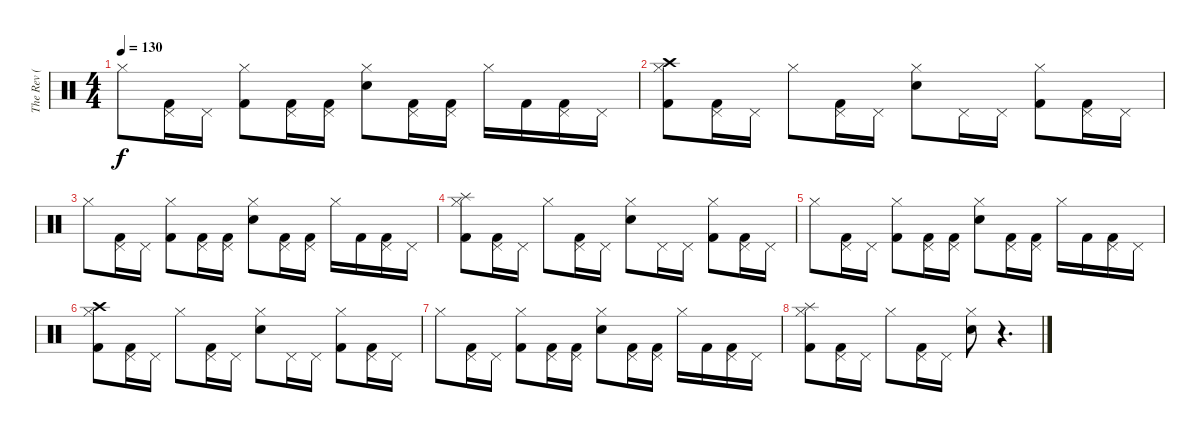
\track ("The Rev ( Drums )" "The Rev ( ") {instrument percussion}
\staff {score}
\articulation defaults
\ts (4 4)
\tempo 130
\clef neutral
\ks c "Hi-Hat (closed)".8{dy f}
("Pedal Hi-Hat (hit)" "Kick (hit) 2").16 "Pedal Hi-Hat (hit)".16 ("Hi-Hat (closed)" "Kick (hit) 2").8 ("Pedal Hi-Hat (hit)" "Kick (hit) 2").16 ("Pedal Hi-Hat (hit)" "Kick (hit) 2").16 ("Hi-Hat (closed)" "Snare (hit) 2").8 ("Pedal Hi-Hat (hit)" "Kick (hit) 2").16 ("Pedal Hi-Hat (hit)" "Kick (hit) 2").16 "Hi-Hat (closed)".16 "Kick (hit) 2".16 ("Pedal Hi-Hat (hit)" "Kick (hit) 2").16 "Pedal Hi-Hat (hit)".16 |
("Crash high (hit)" "Hi-Hat (closed)" "Kick (hit) 2").8 ("Pedal Hi-Hat (hit)" "Kick (hit) 2").16 "Pedal Hi-Hat (hit)".16 "Hi-Hat (closed)".8 ("Pedal Hi-Hat (hit)" "Kick (hit) 2").16 "Pedal Hi-Hat (hit)".16 ("Hi-Hat (closed)" "Snare (hit) 2").8 "Pedal Hi-Hat (hit)".16 "Pedal Hi-Hat (hit)".16 ("Hi-Hat (closed)" "Kick (hit) 2").8 ("Pedal Hi-Hat (hit)" "Kick (hit) 2").16 "Pedal Hi-Hat (hit)".16 |
"Hi-Hat (closed)".8 ("Pedal Hi-Hat (hit)" "Kick (hit) 2").16 "Pedal Hi-Hat (hit)".16 ("Hi-Hat (closed)" "Kick (hit) 2").8 ("Pedal Hi-Hat (hit)" "Kick (hit) 2").16 ("Pedal Hi-Hat (hit)" "Kick (hit) 2").16 ("Hi-Hat (closed)" "Snare (hit) 2").8 ("Pedal Hi-Hat (hit)" "Kick (hit) 2").16 ("Pedal Hi-Hat (hit)" "Kick (hit) 2").16 "Hi-Hat (closed)".16 "Kick (hit) 2".16 ("Pedal Hi-Hat (hit)" "Kick (hit) 2").16 "Pedal Hi-Hat (hit)".16 |
("Splash (hit)" "Hi-Hat (closed)" "Kick (hit) 2").8 ("Pedal Hi-Hat (hit)" "Kick (hit) 2").16 "Pedal Hi-Hat (hit)".16 "Hi-Hat (closed)".8 ("Pedal Hi-Hat (hit)" "Kick (hit) 2").16 "Pedal Hi-Hat (hit)".16 ("Hi-Hat (closed)" "Snare (hit) 2").8 "Pedal Hi-Hat (hit)".16 "Pedal Hi-Hat (hit)".16 ("Hi-Hat (closed)" "Kick (hit) 2").8 ("Pedal Hi-Hat (hit)" "Kick (hit) 2").16 "Pedal Hi-Hat (hit)".16 |
"Hi-Hat (closed)".8 ("Pedal Hi-Hat (hit)" "Kick (hit) 2").16 "Pedal Hi-Hat (hit)".16 ("Hi-Hat (closed)" "Kick (hit) 2").8 ("Pedal Hi-Hat (hit)" "Kick (hit) 2").16 ("Pedal Hi-Hat (hit)" "Kick (hit) 2").16 ("Hi-Hat (closed)" "Snare (hit) 2").8 ("Pedal Hi-Hat (hit)" "Kick (hit) 2").16 ("Pedal Hi-Hat (hit)" "Kick (hit) 2").16 "Hi-Hat (closed)".16 "Kick (hit) 2".16 ("Pedal Hi-Hat (hit)" "Kick (hit) 2").16 "Pedal Hi-Hat (hit)".16 |
("Crash high (hit)" "Hi-Hat (closed)" "Kick (hit) 2").8 ("Pedal Hi-Hat (hit)" "Kick (hit) 2").16 "Pedal Hi-Hat (hit)".16 "Hi-Hat (closed)".8 ("Pedal Hi-Hat (hit)" "Kick (hit) 2").16 "Pedal Hi-Hat (hit)".16 ("Hi-Hat (closed)" "Snare (hit) 2").8 "Pedal Hi-Hat (hit)".16 "Pedal Hi-Hat (hit)".16 ("Hi-Hat (closed)" "Kick (hit) 2").8 ("Pedal Hi-Hat (hit)" "Kick (hit) 2").16 "Pedal Hi-Hat (hit)".16 |
"Hi-Hat (closed)".8 ("Pedal Hi-Hat (hit)" "Kick (hit) 2").16 "Pedal Hi-Hat (hit)".16 ("Hi-Hat (closed)" "Kick (hit) 2").8 ("Pedal Hi-Hat (hit)" "Kick (hit) 2").16 ("Pedal Hi-Hat (hit)" "Kick (hit) 2").16 ("Hi-Hat (closed)" "Snare (hit) 2").8 ("Pedal Hi-Hat (hit)" "Kick (hit) 2").16 ("Pedal Hi-Hat (hit)" "Kick (hit) 2").16 "Hi-Hat (closed)".16 "Kick (hit) 2".16 ("Pedal Hi-Hat (hit)" "Kick (hit) 2").16 "Pedal Hi-Hat (hit)".16 |
("Splash (hit)" "Hi-Hat (closed)" "Kick (hit) 2").8 ("Pedal Hi-Hat (hit)" "Kick (hit) 2").16 "Pedal Hi-Hat (hit)".16 "Hi-Hat (closed)".8 ("Pedal Hi-Hat (hit)" "Kick (hit) 2").16 "Pedal Hi-Hat (hit)".16 ("Hi-Hat (closed)" "Snare (hit) 2").8 r.4{d}
